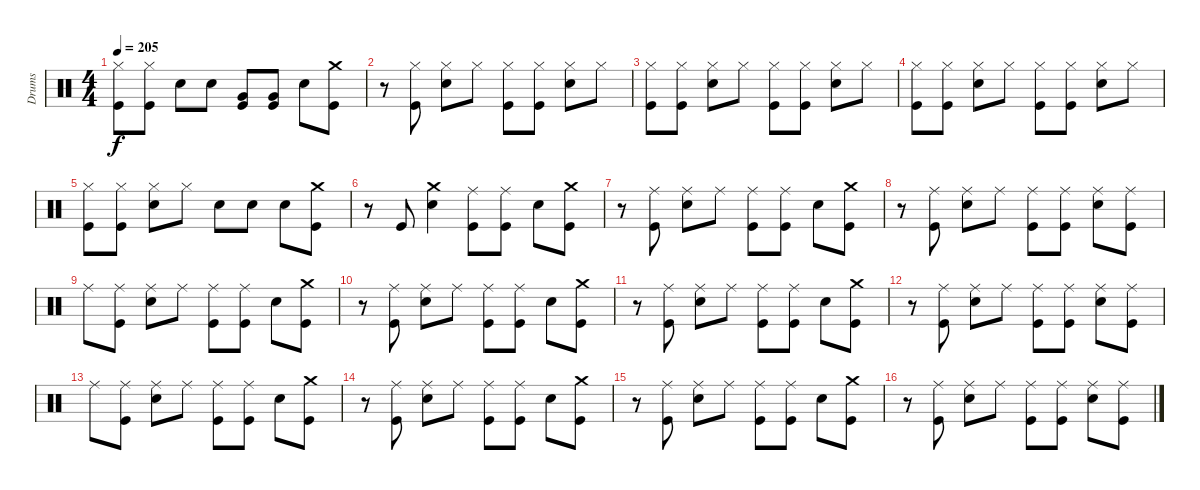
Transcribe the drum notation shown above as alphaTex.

\track ("Drums" "Drums") {instrument percussion}
\staff {score}
\articulation defaults
\ts (4 4)
\tempo 205
\clef neutral
\ks c
("Hi-Hat (closed)" "Kick (hit)").8{dy f} ("Hi-Hat (closed)" "Kick (hit)").8 "Electric Snare (hit)".8 "Electric Snare (hit)".8 ("Very Low Tom (hit)" "Kick (hit)").8 ("Very Low Tom (hit)" "Kick (hit)").8 "Electric Snare (hit)".8 ("Crash medium (hit)" "Kick (hit)").8 |
r.8 ("Hi-Hat (closed)" "Kick (hit)").8 ("Hi-Hat (closed)" "Electric Snare (hit)").8 "Hi-Hat (closed)".8 ("Hi-Hat (closed)" "Kick (hit)").8 ("Hi-Hat (closed)" "Kick (hit)").8 ("Hi-Hat (closed)" "Electric Snare (hit)").8 "Hi-Hat (closed)".8 |
("Hi-Hat (closed)" "Kick (hit)").8 ("Hi-Hat (closed)" "Kick (hit)").8 ("Hi-Hat (closed)" "Electric Snare (hit)").8 "Hi-Hat (closed)".8 ("Hi-Hat (closed)" "Kick (hit)").8 ("Hi-Hat (closed)" "Kick (hit)").8 ("Hi-Hat (closed)" "Electric Snare (hit)").8 "Hi-Hat (closed)".8 |
("Hi-Hat (closed)" "Kick (hit)").8 ("Hi-Hat (closed)" "Kick (hit)").8 ("Hi-Hat (closed)" "Electric Snare (hit)").8 "Hi-Hat (closed)".8 ("Hi-Hat (closed)" "Kick (hit)").8 ("Hi-Hat (closed)" "Kick (hit)").8 ("Hi-Hat (closed)" "Electric Snare (hit)").8 "Hi-Hat (closed)".8 |
("Hi-Hat (closed)" "Kick (hit)").8 ("Hi-Hat (closed)" "Kick (hit)").8 ("Hi-Hat (closed)" "Electric Snare (hit)").8 "Hi-Hat (closed)".8 "Electric Snare (hit)".8 "Electric Snare (hit)".8 "Electric Snare (hit)".8 ("Crash medium (hit)" "Kick (hit)").8 |
r.8 "Kick (hit)".8 ("Crash medium (hit)" "Electric Snare (hit)").4 ("Ride (middle)" "Kick (hit)").8 ("Ride (middle)" "Kick (hit)").8 "Electric Snare (hit)".8 ("Crash medium (hit)" "Kick (hit)").8 |
r.8 ("Ride (middle)" "Kick (hit)").8 ("Ride (middle)" "Electric Snare (hit)").8 "Ride (middle)".8 ("Ride (middle)" "Kick (hit)").8 ("Ride (middle)" "Kick (hit)").8 "Electric Snare (hit)".8 ("Crash medium (hit)" "Kick (hit)").8 |
r.8 ("Ride (middle)" "Kick (hit)").8 ("Ride (middle)" "Electric Snare (hit)").8 "Ride (middle)".8 ("Ride (middle)" "Kick (hit)").8 ("Ride (middle)" "Kick (hit)").8 ("Ride (middle)" "Electric Snare (hit)").8 ("Ride (middle)" "Kick (hit)").8 |
"Ride (middle)".8 ("Ride (middle)" "Kick (hit)").8 ("Ride (middle)" "Electric Snare (hit)").8 "Ride (middle)".8 ("Ride (middle)" "Kick (hit)").8 ("Ride (middle)" "Kick (hit)").8 "Electric Snare (hit)".8 ("Crash medium (hit)" "Kick (hit)").8 |
r.8 ("Ride (middle)" "Kick (hit)").8 ("Ride (middle)" "Electric Snare (hit)").8 "Ride (middle)".8 ("Ride (middle)" "Kick (hit)").8 ("Ride (middle)" "Kick (hit)").8 "Electric Snare (hit)".8 ("Crash medium (hit)" "Kick (hit)").8 |
r.8 ("Ride (middle)" "Kick (hit)").8 ("Ride (middle)" "Electric Snare (hit)").8 "Ride (middle)".8 ("Ride (middle)" "Kick (hit)").8 ("Ride (middle)" "Kick (hit)").8 "Electric Snare (hit)".8 ("Crash medium (hit)" "Kick (hit)").8 |
r.8 ("Ride (middle)" "Kick (hit)").8 ("Ride (middle)" "Electric Snare (hit)").8 "Ride (middle)".8 ("Ride (middle)" "Kick (hit)").8 ("Ride (middle)" "Kick (hit)").8 ("Ride (middle)" "Electric Snare (hit)").8 ("Ride (middle)" "Kick (hit)").8 |
"Ride (middle)".8 ("Ride (middle)" "Kick (hit)").8 ("Ride (middle)" "Electric Snare (hit)").8 "Ride (middle)".8 ("Ride (middle)" "Kick (hit)").8 ("Ride (middle)" "Kick (hit)").8 "Electric Snare (hit)".8 ("Crash medium (hit)" "Kick (hit)").8 |
r.8 ("Ride (middle)" "Kick (hit)").8 ("Ride (middle)" "Electric Snare (hit)").8 "Ride (middle)".8 ("Ride (middle)" "Kick (hit)").8 ("Ride (middle)" "Kick (hit)").8 "Electric Snare (hit)".8 ("Crash medium (hit)" "Kick (hit)").8 |
r.8 ("Ride (middle)" "Kick (hit)").8 ("Ride (middle)" "Electric Snare (hit)").8 "Ride (middle)".8 ("Ride (middle)" "Kick (hit)").8 ("Ride (middle)" "Kick (hit)").8 "Electric Snare (hit)".8 ("Crash medium (hit)" "Kick (hit)").8 |
r.8 ("Ride (middle)" "Kick (hit)").8 ("Ride (middle)" "Electric Snare (hit)").8 "Ride (middle)".8 ("Ride (middle)" "Kick (hit)").8 ("Ride (middle)" "Kick (hit)").8 ("Ride (middle)" "Electric Snare (hit)").8 ("Ride (middle)" "Kick (hit)").8
